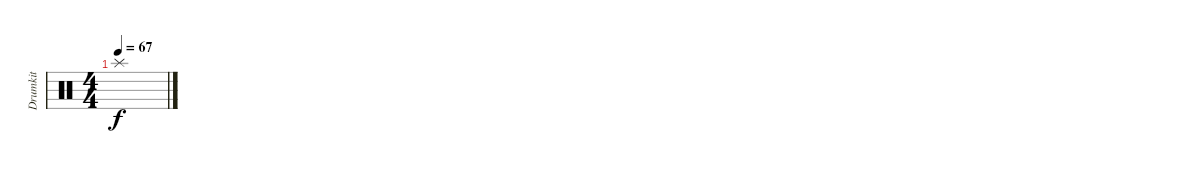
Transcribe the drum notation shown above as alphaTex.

\track ("Drumkit" "Drumkit") {instrument percussion}
\staff {score}
\articulation defaults
\ts (4 4)
\tempo 67
\clef neutral
\ks c "Splash (hit)".1{dy f}
